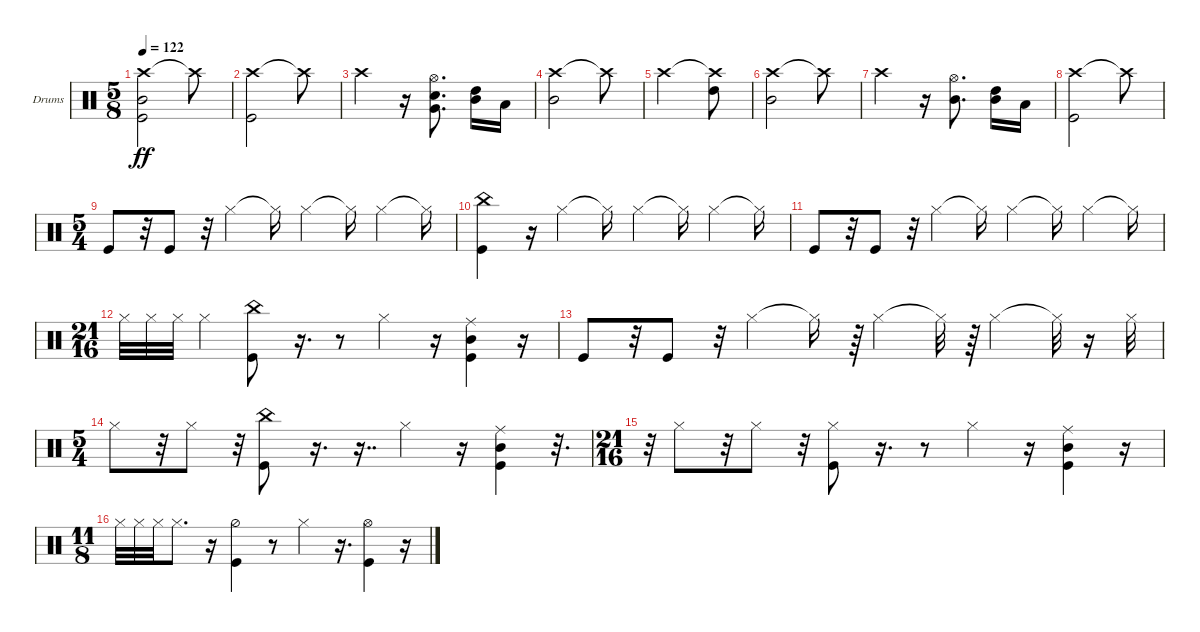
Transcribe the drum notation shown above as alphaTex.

\defaultSystemsLayout 4
\bracketExtendMode groupsimilarinstruments
\firstSystemTrackNameOrientation horizontal
\otherSystemsTrackNameOrientation horizontal
\track ("Drumkit" "Drums") {instrument percussion}
\staff {score}
\articulation defaults
\ts (5 8)
\tempo 122
\clef neutral
\ks c
("Crash high (hit)" "Mid Tom (hit)" "Kick (hit)").2{dy ff} "Crash high (hit)"{t}.8 |
\scale
0.472222 ("Crash high (hit)" "Kick (hit)").2 "Crash high (hit)"{t}.8 |
\scale
0.263889 "Crash high (hit)".4 r.16 ("Snare (hit) 2" "Very Low Tom (hit)" "Hi-Hat (open)").8{d} ("Mid Tom (hit)" "High Tom (hit)").16 "Low Tom (hit)".16 |
("Crash high (hit)" "Mid Tom (hit)").2 "Crash high (hit)"{t}.8 |
\scale
0.263889 "Crash high (hit)".2 ("Crash high (hit)"{t} "High Tom (hit)").8 |
("Crash high (hit)" "Mid Tom (hit)").2 "Crash high (hit)"{t}.8 |
"Crash high (hit)".4 r.16 ("Hi-Hat (open)" "Mid Tom (hit)").8{d} ("Mid Tom (hit)" "High Tom (hit)").16 "Low Tom (hit)".16 |
("Crash high (hit)" "Kick (hit)").2 "Crash high (hit)"{t}.8 |
\ts (5 4)
"Kick (hit)".8 r.32 "Kick (hit)".8 r.32 "Hi-Hat (closed)".4 "Hi-Hat (closed)"{t}.16 "Hi-Hat (closed)".4 "Hi-Hat (closed)"{t}.16 "Hi-Hat (closed)".4 "Hi-Hat (closed)"{t}.16 |
("Kick (hit)" "China (hit)").4 r.16 "Hi-Hat (closed)".4 "Hi-Hat (closed)"{t}.16 "Hi-Hat (closed)".4 "Hi-Hat (closed)"{t}.16 "Hi-Hat (closed)".4 "Hi-Hat (closed)"{t}.16 |
"Kick (hit)".8 r.32 "Kick (hit)".8 r.32 "Hi-Hat (closed)".4 "Hi-Hat (closed)"{t}.16 "Hi-Hat (closed)".4 "Hi-Hat (closed)"{t}.16 "Hi-Hat (closed)".4 "Hi-Hat (closed)"{t}.16 |
\ts (21 16)
"Hi-Hat (closed)".32 "Hi-Hat (closed)".32 "Hi-Hat (closed)".32 "Hi-Hat (closed)".4 ("Kick (hit)" "China (hit)").8 r.16{d} r.8 "Hi-Hat (closed)".4 r.16 ("Kick (hit)" "Mid Tom (hit)" "Ride (middle)").4 r.16 |
"Kick (hit)".8 r.32 "Kick (hit)".8 r.32 "Hi-Hat (closed)".4 "Hi-Hat (closed)"{t}.16 r.64 "Hi-Hat (closed)".4 "Hi-Hat (closed)"{t}.32 r.64 "Hi-Hat (closed)".4 "Hi-Hat (closed)"{t}.32 r.16 "Hi-Hat (closed)".32 |
\ts (5 4)
"Hi-Hat (closed)".8 r.32 "Hi-Hat (closed)".8 r.32 ("Kick (hit)" "China (hit)").8 r.16{d} r.16{dd} "Hi-Hat (closed)".4 r.16 ("Kick (hit)" "Mid Tom (hit)" "Ride (middle)").4 r.32{d} |
\ts (21 16)
r.32 "Hi-Hat (closed)".8 r.32 "Hi-Hat (closed)".8 r.32 ("Kick (hit)" "Hi-Hat (closed)").8 r.16{d} r.8 "Hi-Hat (closed)".4 r.16 ("Kick (hit)" "Mid Tom (hit)" "Ride (middle)").4 r.16 |
\ts (11 8)
"Hi-Hat (closed)".32 "Hi-Hat (closed)".32 "Hi-Hat (closed)".32 "Hi-Hat (closed)".8{d} r.16 ("Kick (hit)" "Hi-Hat (half)").4 r.8 "Hi-Hat (closed)".4 r.16{d} ("Kick (hit)" "Hi-Hat (open)").4 r.16
